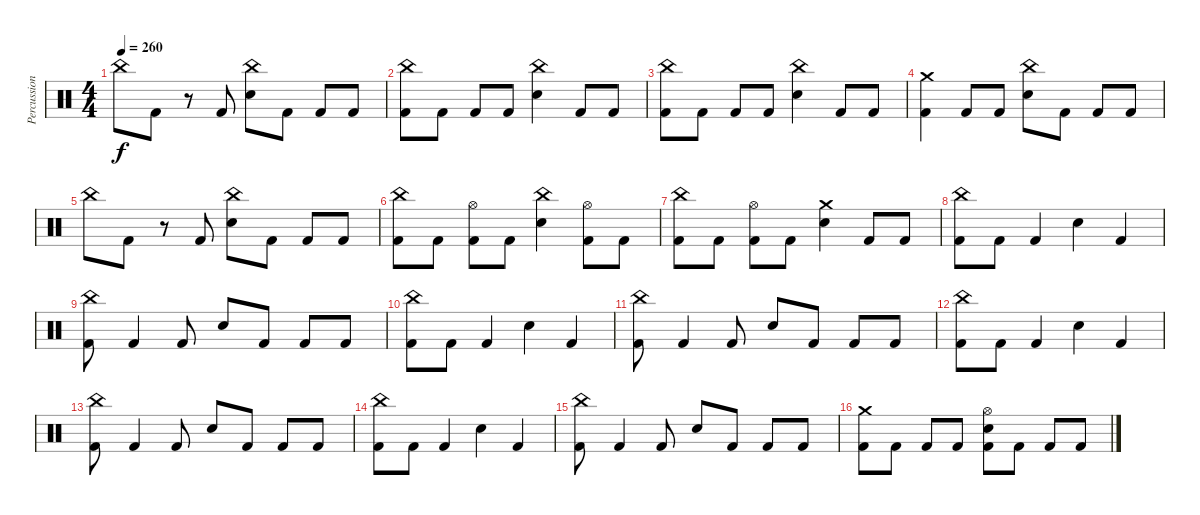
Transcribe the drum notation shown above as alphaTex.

\track ("Percussion" "Percussion") {instrument percussion}
\staff {score}
\articulation defaults
\ts (4 4)
\tempo 260
\clef neutral
\ks c "China (hit)".8{dy f} "Kick (hit) 2".8
r.8 "Kick (hit) 2".8 ("China (hit)" "Electric Snare (hit)").8 "Kick (hit) 2".8 "Kick (hit) 2".8 "Kick (hit) 2".8 |
("China (hit)" "Kick (hit) 2").8 "Kick (hit) 2".8 "Kick (hit) 2".8 "Kick (hit) 2".8 ("China (hit)" "Electric Snare (hit)").4 "Kick (hit) 2".8 "Kick (hit) 2".8 |
("China (hit)" "Kick (hit) 2").8 "Kick (hit) 2".8 "Kick (hit) 2".8 "Kick (hit) 2".8 ("China (hit)" "Electric Snare (hit)").4 "Kick (hit) 2".8 "Kick (hit) 2".8 |
("Crash medium (hit)" "Kick (hit) 2").4 "Kick (hit) 2".8 "Kick (hit) 2".8 ("China (hit)" "Electric Snare (hit)").8 "Kick (hit) 2".8 "Kick (hit) 2".8 "Kick (hit) 2".8 |
"China (hit)".8 "Kick (hit) 2".8 r.8 "Kick (hit) 2".8 ("China (hit)" "Electric Snare (hit)").8 "Kick (hit) 2".8 "Kick (hit) 2".8 "Kick (hit) 2".8 |
("China (hit)" "Kick (hit) 2").8 "Kick (hit) 2".8 ("Hi-Hat (open)" "Kick (hit) 2").8 "Kick (hit) 2".8 ("China (hit)" "Electric Snare (hit)").4 ("Hi-Hat (open)" "Kick (hit) 2").8 "Kick (hit) 2".8 |
("China (hit)" "Kick (hit) 2").8 "Kick (hit) 2".8 ("Hi-Hat (open)" "Kick (hit) 2").8 "Kick (hit) 2".8 ("Crash medium (hit)" "Electric Snare (hit)").4 "Kick (hit) 2".8 "Kick (hit) 2".8 |
("China (hit)" "Kick (hit) 2").8 "Kick (hit) 2".8 "Kick (hit) 2".4 "Electric Snare (hit)".4 "Kick (hit) 2".4 |
("China (hit)" "Kick (hit) 2").8 "Kick (hit) 2".4 "Kick (hit) 2".8 "Electric Snare (hit)".8 "Kick (hit) 2".8 "Kick (hit) 2".8 "Kick (hit) 2".8 |
("China (hit)" "Kick (hit) 2").8 "Kick (hit) 2".8 "Kick (hit) 2".4 "Electric Snare (hit)".4 "Kick (hit) 2".4 |
("China (hit)" "Kick (hit) 2").8 "Kick (hit) 2".4 "Kick (hit) 2".8 "Electric Snare (hit)".8 "Kick (hit) 2".8 "Kick (hit) 2".8 "Kick (hit) 2".8 |
("China (hit)" "Kick (hit) 2").8 "Kick (hit) 2".8 "Kick (hit) 2".4 "Electric Snare (hit)".4 "Kick (hit) 2".4 |
("China (hit)" "Kick (hit) 2").8 "Kick (hit) 2".4 "Kick (hit) 2".8 "Electric Snare (hit)".8 "Kick (hit) 2".8 "Kick (hit) 2".8 "Kick (hit) 2".8 |
("China (hit)" "Kick (hit) 2").8 "Kick (hit) 2".8 "Kick (hit) 2".4 "Electric Snare (hit)".4 "Kick (hit) 2".4 |
("China (hit)" "Kick (hit) 2").8 "Kick (hit) 2".4 "Kick (hit) 2".8 "Electric Snare (hit)".8 "Kick (hit) 2".8 "Kick (hit) 2".8 "Kick (hit) 2".8 |
("Crash medium (hit)" "Kick (hit) 2").8 "Kick (hit) 2".8 "Kick (hit) 2".8 "Kick (hit) 2".8 ("Hi-Hat (open)" "Electric Snare (hit)" "Kick (hit) 2").8 "Kick (hit) 2".8 "Kick (hit) 2".8 "Kick (hit) 2".8
